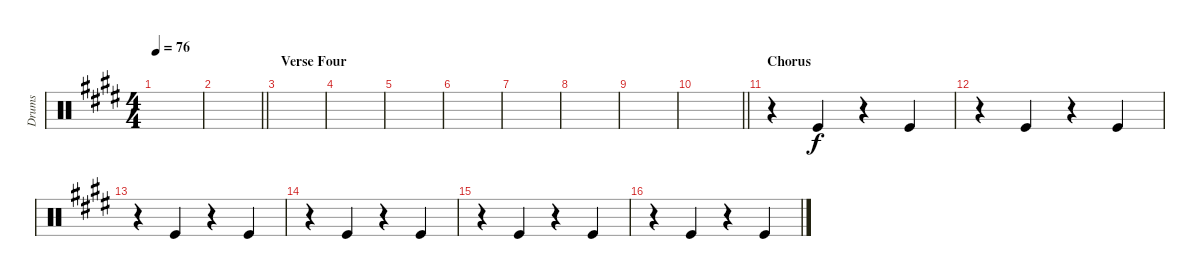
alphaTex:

\track ("Drums" "Drums") {instrument percussion}
\staff {score}
\articulation defaults
\ts (4 4)
\tempo 76
\clef neutral
\ks e
|
\barLineRight lightlight
|
\section ("" "Verse Four")
|
|
|
|
|
|
|
\barLineRight lightlight
|
\section ("" "Chorus")
r.4 "Kick (hit)".4 r.4 "Kick (hit)".4 |
r.4 "Kick (hit)".4 r.4 "Kick (hit)".4 |
r.4 "Kick (hit)".4 r.4 "Kick (hit)".4 |
r.4 "Kick (hit)".4 r.4 "Kick (hit)".4 |
r.4 "Kick (hit)".4 r.4 "Kick (hit)".4 |
r.4 "Kick (hit)".4 r.4 "Kick (hit)".4
